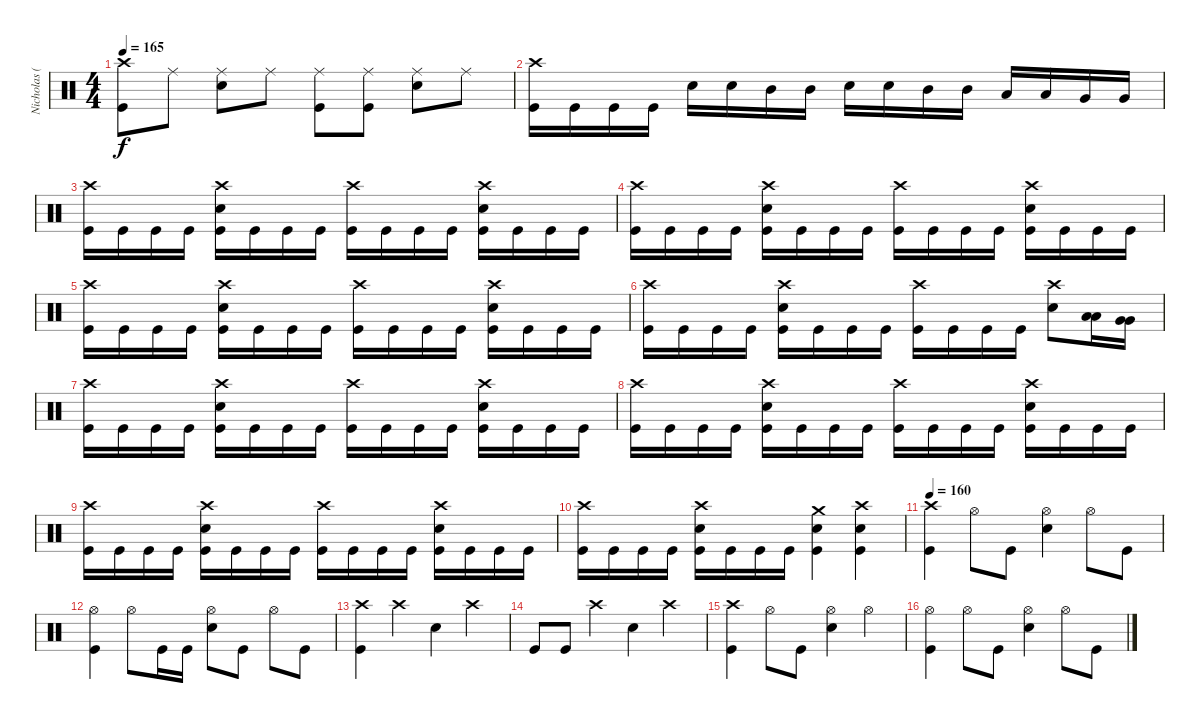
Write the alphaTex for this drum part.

\track ("Nicholas (Drums)" "Nicholas (") {instrument percussion}
\staff {score}
\articulation defaults
\ts (4 4)
\tempo 165
\clef neutral
\ks c
("Crash high (hit)" "Kick (hit)").8{dy f} "Ride (middle)".8 ("Ride (middle)" "Electric Snare (hit)").8 "Ride (middle)".8 ("Ride (middle)" "Kick (hit)").8 ("Ride (middle)" "Kick (hit)").8 ("Ride (middle)" "Electric Snare (hit)").8 "Ride (middle)".8 |
("Crash high (hit)" "Kick (hit)").16 "Kick (hit)".16 "Kick (hit)".16 "Kick (hit)".16 "Electric Snare (hit)".16 "Electric Snare (hit)".16 "Mid Tom (hit)".16 "Mid Tom (hit)".16 "Electric Snare (hit)".16 "Electric Snare (hit)".16 "Mid Tom (hit)".16 "Mid Tom (hit)".16 "Low Tom (hit)".16 "Low Tom (hit)".16 "Very Low Tom (hit)".16 "Very Low Tom (hit)".16 |
("Crash high (hit)" "Kick (hit)").16 "Kick (hit)".16 "Kick (hit)".16 "Kick (hit)".16 ("Crash high (hit)" "Electric Snare (hit)" "Kick (hit)").16 "Kick (hit)".16 "Kick (hit)".16 "Kick (hit)".16 ("Crash high (hit)" "Kick (hit)").16 "Kick (hit)".16 "Kick (hit)".16 "Kick (hit)".16 ("Crash high (hit)" "Electric Snare (hit)" "Kick (hit)").16 "Kick (hit)".16 "Kick (hit)".16 "Kick (hit)".16 |
("Crash high (hit)" "Kick (hit)").16 "Kick (hit)".16 "Kick (hit)".16 "Kick (hit)".16 ("Crash high (hit)" "Electric Snare (hit)" "Kick (hit)").16 "Kick (hit)".16 "Kick (hit)".16 "Kick (hit)".16 ("Crash high (hit)" "Kick (hit)").16 "Kick (hit)".16 "Kick (hit)".16 "Kick (hit)".16 ("Crash high (hit)" "Electric Snare (hit)" "Kick (hit)").16 "Kick (hit)".16 "Kick (hit)".16 "Kick (hit)".16 |
("Crash high (hit)" "Kick (hit)").16 "Kick (hit)".16 "Kick (hit)".16 "Kick (hit)".16 ("Crash high (hit)" "Electric Snare (hit)" "Kick (hit)").16 "Kick (hit)".16 "Kick (hit)".16 "Kick (hit)".16 ("Crash high (hit)" "Kick (hit)").16 "Kick (hit)".16 "Kick (hit)".16 "Kick (hit)".16 ("Crash high (hit)" "Electric Snare (hit)" "Kick (hit)").16 "Kick (hit)".16 "Kick (hit)".16 "Kick (hit)".16 |
("Crash high (hit)" "Kick (hit)").16 "Kick (hit)".16 "Kick (hit)".16 "Kick (hit)".16 ("Crash high (hit)" "Electric Snare (hit)" "Kick (hit)").16 "Kick (hit)".16 "Kick (hit)".16 "Kick (hit)".16 ("Crash high (hit)" "Kick (hit)").16 "Kick (hit)".16 "Kick (hit)".16 "Kick (hit)".16 ("Crash high (hit)" "Electric Snare (hit)").8 ("Low Tom (hit)" "Low Tom (hit)").16 ("Very Low Tom (hit)" "Very Low Tom (hit)").16 |
("Crash high (hit)" "Kick (hit)").16 "Kick (hit)".16 "Kick (hit)".16 "Kick (hit)".16 ("Crash high (hit)" "Electric Snare (hit)" "Kick (hit)").16 "Kick (hit)".16 "Kick (hit)".16 "Kick (hit)".16 ("Crash high (hit)" "Kick (hit)").16 "Kick (hit)".16 "Kick (hit)".16 "Kick (hit)".16 ("Crash high (hit)" "Electric Snare (hit)" "Kick (hit)").16 "Kick (hit)".16 "Kick (hit)".16 "Kick (hit)".16 |
("Crash high (hit)" "Kick (hit)").16 "Kick (hit)".16 "Kick (hit)".16 "Kick (hit)".16 ("Crash high (hit)" "Electric Snare (hit)" "Kick (hit)").16 "Kick (hit)".16 "Kick (hit)".16 "Kick (hit)".16 ("Crash high (hit)" "Kick (hit)").16 "Kick (hit)".16 "Kick (hit)".16 "Kick (hit)".16 ("Crash high (hit)" "Electric Snare (hit)" "Kick (hit)").16 "Kick (hit)".16 "Kick (hit)".16 "Kick (hit)".16 |
("Crash high (hit)" "Kick (hit)").16 "Kick (hit)".16 "Kick (hit)".16 "Kick (hit)".16 ("Crash high (hit)" "Electric Snare (hit)" "Kick (hit)").16 "Kick (hit)".16 "Kick (hit)".16 "Kick (hit)".16 ("Crash high (hit)" "Kick (hit)").16 "Kick (hit)".16 "Kick (hit)".16 "Kick (hit)".16 ("Crash high (hit)" "Electric Snare (hit)" "Kick (hit)").16 "Kick (hit)".16 "Kick (hit)".16 "Kick (hit)".16 |
("Crash high (hit)" "Kick (hit)").16 "Kick (hit)".16 "Kick (hit)".16 "Kick (hit)".16 ("Crash high (hit)" "Electric Snare (hit)" "Kick (hit)").16 "Kick (hit)".16 "Kick (hit)".16 "Kick (hit)".16 ("Crash medium (hit)" "Electric Snare (hit)" "Kick (hit)").4 ("Crash high (hit)" "Electric Snare (hit)" "Kick (hit)").4 |
\tempo 160
("Crash high (hit)" "Kick (hit)").4 "Hi-Hat (open)".8 "Kick (hit)".8 ("Hi-Hat (open)" "Electric Snare (hit)").4 "Hi-Hat (open)".8 "Kick (hit)".8 |
("Hi-Hat (open)" "Kick (hit)").4 "Hi-Hat (open)".8 "Kick (hit)".16 "Kick (hit)".16 ("Hi-Hat (open)" "Electric Snare (hit)").8 "Kick (hit)".8 "Hi-Hat (open)".8 "Kick (hit)".8 |
("Crash high (hit)" "Kick (hit)").4 "Crash high (hit)".4 "Electric Snare (hit)".4 "Crash high (hit)".4 |
"Kick (hit)".8 "Kick (hit)".8 "Crash high (hit)".4 "Electric Snare (hit)".4 "Crash high (hit)".4 |
("Crash high (hit)" "Kick (hit)").4 "Hi-Hat (open)".8 "Kick (hit)".8 ("Hi-Hat (open)" "Electric Snare (hit)").4 "Hi-Hat (open)".4 |
("Hi-Hat (open)" "Kick (hit)").4 "Hi-Hat (open)".8 "Kick (hit)".8 ("Hi-Hat (open)" "Electric Snare (hit)").4 "Hi-Hat (open)".8 "Kick (hit)".8
